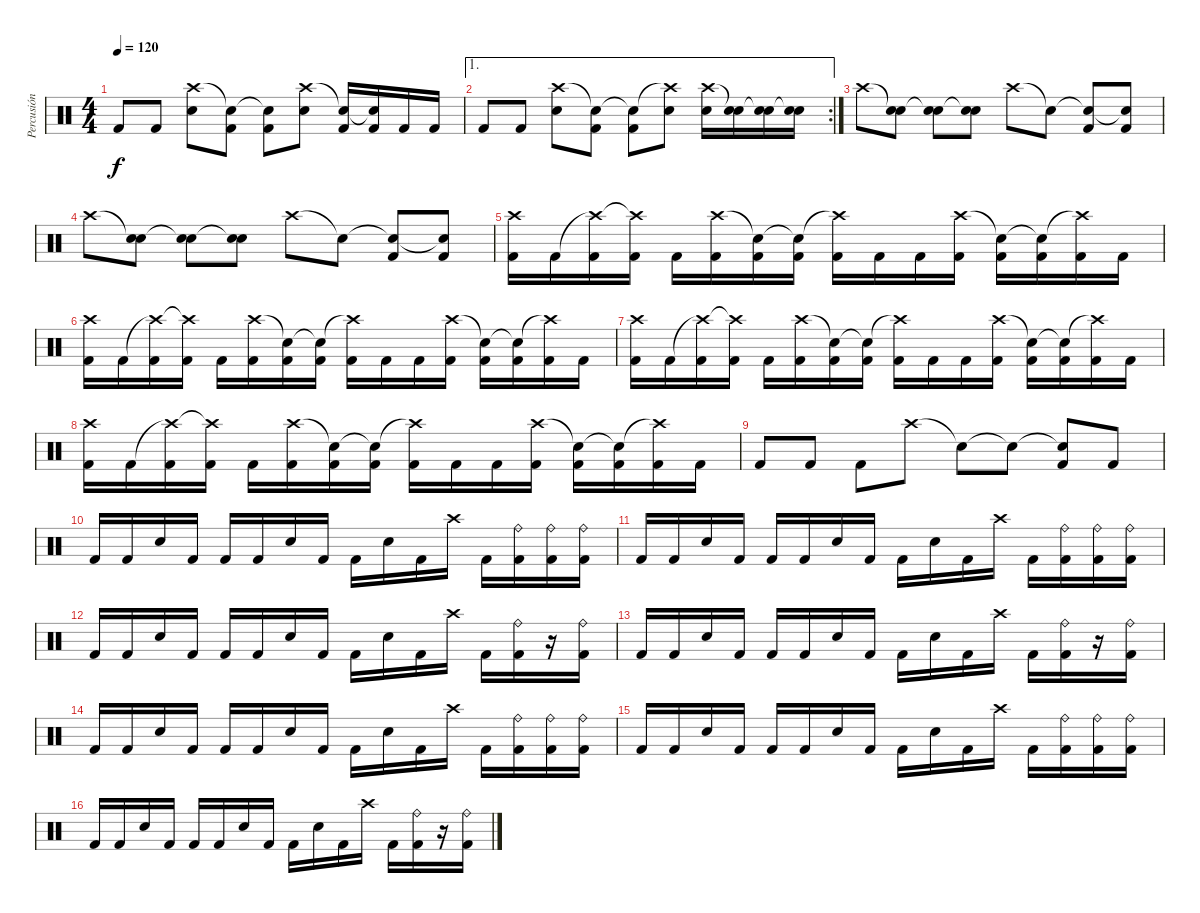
\track ("Percusión" "Percusión") {instrument percussion}
\staff {score}
\articulation defaults
\ts (4 4)
\tempo 120
\clef neutral
\ks c "Kick (hit) 2".8{dy f} "Kick (hit) 2".8
("Crash high (hit)" "Electric Snare (hit)").8 ("Snare (hit)"{t} "Kick (hit) 2").8 ("Snare (hit)"{t} "Kick (hit) 2").8 ("Crash high (hit)" "Electric Snare (hit)").8 ("Snare (hit)"{t} "Kick (hit) 2").16 ("Snare (hit)"{t} "Kick (hit) 2").16 "Kick (hit) 2".16 "Kick (hit) 2".16 |
\ae 1
\rc 2 "Kick (hit) 2".8 "Kick (hit) 2".8
("Crash high (hit)" "Electric Snare (hit)").8 ("Snare (hit)"{t} "Kick (hit) 2").8 ("Snare (hit)"{t} "Kick (hit) 2").8 ("Crash high (hit)"{t} "Electric Snare (hit)").8 ("Crash high (hit)" "Electric Snare (hit)").16 ("Snare (hit)"{t} "Electric Snare (hit)").16 ("Snare (hit)"{t} "Electric Snare (hit)").16 ("Snare (hit)"{t} "Electric Snare (hit)").16 |
"Crash high (hit)".8 ("Snare (hit)"{t} "Electric Snare (hit)").8 ("Snare (hit)"{t} "Electric Snare (hit)").8 ("Snare (hit)"{t} "Electric Snare (hit)").8 "Crash high (hit)".8 "Snare (hit)"{t}.8 ("Snare (hit)"{t} "Kick (hit) 2").8 ("Snare (hit)"{t} "Kick (hit) 2").8 |
"Crash high (hit)".8 ("Snare (hit)"{t} "Electric Snare (hit)").8 ("Snare (hit)"{t} "Electric Snare (hit)").8 ("Snare (hit)"{t} "Electric Snare (hit)").8 "Crash high (hit)".8 "Snare (hit)"{t}.8 ("Snare (hit)"{t} "Kick (hit) 2").8 ("Snare (hit)"{t} "Kick (hit) 2").8 |
("Crash high (hit)" "Kick (hit) 2").16 "Kick (hit) 2".16 ("Crash high (hit)"{t} "Kick (hit) 2").16 ("Crash high (hit)"{t} "Kick (hit) 2").16 "Kick (hit) 2".16 ("Crash high (hit)" "Kick (hit) 2").16 ("Snare (hit)"{t} "Kick (hit) 2").16 ("Snare (hit)"{t} "Kick (hit) 2").16 ("Crash high (hit)"{t} "Kick (hit) 2").16 "Kick (hit) 2".16 "Kick (hit) 2".16 ("Crash high (hit)" "Kick (hit) 2").16 ("Snare (hit)"{t} "Kick (hit) 2").16 ("Snare (hit)"{t} "Kick (hit) 2").16 ("Crash high (hit)"{t} "Kick (hit) 2").16 "Kick (hit) 2".16 |
("Crash high (hit)" "Kick (hit) 2").16 "Kick (hit) 2".16 ("Crash high (hit)"{t} "Kick (hit) 2").16 ("Crash high (hit)"{t} "Kick (hit) 2").16 "Kick (hit) 2".16 ("Crash high (hit)" "Kick (hit) 2").16 ("Snare (hit)"{t} "Kick (hit) 2").16 ("Snare (hit)"{t} "Kick (hit) 2").16 ("Crash high (hit)"{t} "Kick (hit) 2").16 "Kick (hit) 2".16 "Kick (hit) 2".16 ("Crash high (hit)" "Kick (hit) 2").16 ("Snare (hit)"{t} "Kick (hit) 2").16 ("Snare (hit)"{t} "Kick (hit) 2").16 ("Crash high (hit)"{t} "Kick (hit) 2").16 "Kick (hit) 2".16 |
("Crash high (hit)" "Kick (hit) 2").16 "Kick (hit) 2".16 ("Crash high (hit)"{t} "Kick (hit) 2").16 ("Crash high (hit)"{t} "Kick (hit) 2").16 "Kick (hit) 2".16 ("Crash high (hit)" "Kick (hit) 2").16 ("Snare (hit)"{t} "Kick (hit) 2").16 ("Snare (hit)"{t} "Kick (hit) 2").16 ("Crash high (hit)"{t} "Kick (hit) 2").16 "Kick (hit) 2".16 "Kick (hit) 2".16 ("Crash high (hit)" "Kick (hit) 2").16 ("Snare (hit)"{t} "Kick (hit) 2").16 ("Snare (hit)"{t} "Kick (hit) 2").16 ("Crash high (hit)"{t} "Kick (hit) 2").16 "Kick (hit) 2".16 |
("Crash high (hit)" "Kick (hit) 2").16 "Kick (hit) 2".16 ("Crash high (hit)"{t} "Kick (hit) 2").16 ("Crash high (hit)"{t} "Kick (hit) 2").16 "Kick (hit) 2".16 ("Crash high (hit)" "Kick (hit) 2").16 ("Snare (hit)"{t} "Kick (hit) 2").16 ("Snare (hit)"{t} "Kick (hit) 2").16 ("Crash high (hit)"{t} "Kick (hit) 2").16 "Kick (hit) 2".16 "Kick (hit) 2".16 ("Crash high (hit)" "Kick (hit) 2").16 ("Snare (hit)"{t} "Kick (hit) 2").16 ("Snare (hit)"{t} "Kick (hit) 2").16 ("Crash high (hit)"{t} "Kick (hit) 2").16 "Kick (hit) 2".16 |
"Kick (hit) 2".8 "Kick (hit) 2".8 "Kick (hit) 2".8 "Crash high (hit)".8 "Snare (hit)"{t}.8 "Snare (hit)"{t}.8 ("Snare (hit)"{t} "Kick (hit) 2").8 "Kick (hit) 2".8 |
"Kick (hit) 2".16 "Kick (hit) 2".16 "Electric Snare (hit)".16 "Kick (hit) 2".16 "Kick (hit) 2".16 "Kick (hit) 2".16 "Electric Snare (hit)".16 "Kick (hit) 2".16 "Kick (hit) 2".16 "Electric Snare (hit)".16 "Kick (hit) 2".16 "Crash high (hit)".16 "Kick (hit) 2".16 ("Ride (bell)" "Kick (hit) 2").16 ("Ride (bell)" "Kick (hit) 2").16 ("Ride (bell)" "Kick (hit) 2").16 |
"Kick (hit) 2".16 "Kick (hit) 2".16 "Electric Snare (hit)".16 "Kick (hit) 2".16 "Kick (hit) 2".16 "Kick (hit) 2".16 "Electric Snare (hit)".16 "Kick (hit) 2".16 "Kick (hit) 2".16 "Electric Snare (hit)".16 "Kick (hit) 2".16 "Crash high (hit)".16 "Kick (hit) 2".16 ("Ride (bell)" "Kick (hit) 2").16 ("Ride (bell)" "Kick (hit) 2").16 ("Ride (bell)" "Kick (hit) 2").16 |
"Kick (hit) 2".16 "Kick (hit) 2".16 "Electric Snare (hit)".16 "Kick (hit) 2".16 "Kick (hit) 2".16 "Kick (hit) 2".16 "Electric Snare (hit)".16 "Kick (hit) 2".16 "Kick (hit) 2".16 "Electric Snare (hit)".16 "Kick (hit) 2".16 "Crash high (hit)".16 "Kick (hit) 2".16 ("Ride (bell)" "Kick (hit) 2").16 r.16 ("Ride (bell)" "Kick (hit) 2").16 |
"Kick (hit) 2".16 "Kick (hit) 2".16 "Electric Snare (hit)".16 "Kick (hit) 2".16 "Kick (hit) 2".16 "Kick (hit) 2".16 "Electric Snare (hit)".16 "Kick (hit) 2".16 "Kick (hit) 2".16 "Electric Snare (hit)".16 "Kick (hit) 2".16 "Crash high (hit)".16 "Kick (hit) 2".16 ("Ride (bell)" "Kick (hit) 2").16 r.16 ("Ride (bell)" "Kick (hit) 2").16 |
"Kick (hit) 2".16 "Kick (hit) 2".16 "Electric Snare (hit)".16 "Kick (hit) 2".16 "Kick (hit) 2".16 "Kick (hit) 2".16 "Electric Snare (hit)".16 "Kick (hit) 2".16 "Kick (hit) 2".16 "Electric Snare (hit)".16 "Kick (hit) 2".16 "Crash high (hit)".16 "Kick (hit) 2".16 ("Ride (bell)" "Kick (hit) 2").16 ("Ride (bell)" "Kick (hit) 2").16 ("Ride (bell)" "Kick (hit) 2").16 |
"Kick (hit) 2".16 "Kick (hit) 2".16 "Electric Snare (hit)".16 "Kick (hit) 2".16 "Kick (hit) 2".16 "Kick (hit) 2".16 "Electric Snare (hit)".16 "Kick (hit) 2".16 "Kick (hit) 2".16 "Electric Snare (hit)".16 "Kick (hit) 2".16 "Crash high (hit)".16 "Kick (hit) 2".16 ("Ride (bell)" "Kick (hit) 2").16 ("Ride (bell)" "Kick (hit) 2").16 ("Ride (bell)" "Kick (hit) 2").16 |
"Kick (hit) 2".16 "Kick (hit) 2".16 "Electric Snare (hit)".16 "Kick (hit) 2".16 "Kick (hit) 2".16 "Kick (hit) 2".16 "Electric Snare (hit)".16 "Kick (hit) 2".16 "Kick (hit) 2".16 "Electric Snare (hit)".16 "Kick (hit) 2".16 "Crash high (hit)".16 "Kick (hit) 2".16 ("Ride (bell)" "Kick (hit) 2").16 r.16 ("Ride (bell)" "Kick (hit) 2").16
